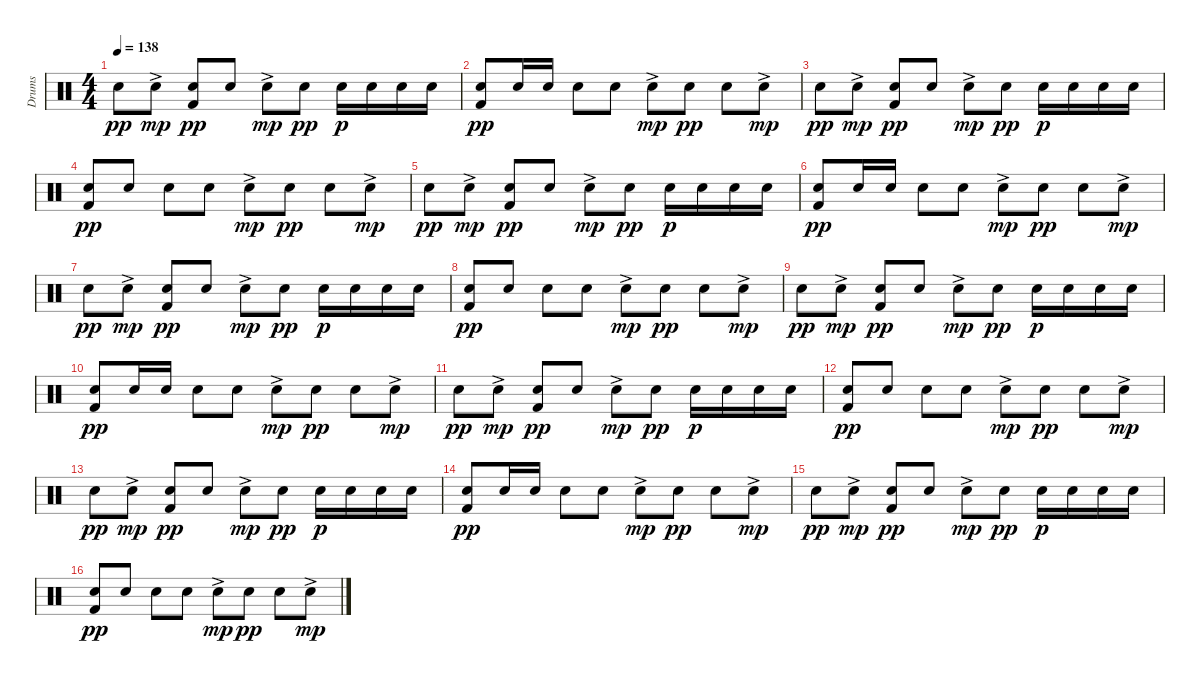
\track ("Drums" "Drums") {instrument percussion}
\staff {score}
\articulation defaults
\ts (4 4)
\tempo 138
\clef neutral
\ks c "Electric Snare (hit)".8{dy pp} "Electric Snare (hit)"{ac}.8{dy mp}
("Electric Snare (hit)" "Kick (hit) 2").8{dy pp} "Electric Snare (hit)".8 "Electric Snare (hit)"{ac}.8{dy mp} "Electric Snare (hit)".8{dy pp} "Electric Snare (hit)".16{dy p} "Electric Snare (hit)".16 "Electric Snare (hit)".16 "Electric Snare (hit)".16 |
("Electric Snare (hit)" "Kick (hit) 2").8{dy pp} "Electric Snare (hit)".16 "Electric Snare (hit)".16 "Electric Snare (hit)".8 "Electric Snare (hit)".8 "Electric Snare (hit)"{ac}.8{dy mp} "Electric Snare (hit)".8{dy pp} "Electric Snare (hit)".8 "Electric Snare (hit)"{ac}.8{dy mp} |
"Electric Snare (hit)".8{dy pp} "Electric Snare (hit)"{ac}.8{dy mp} ("Electric Snare (hit)" "Kick (hit) 2").8{dy pp} "Electric Snare (hit)".8 "Electric Snare (hit)"{ac}.8{dy mp} "Electric Snare (hit)".8{dy pp} "Electric Snare (hit)".16{dy p} "Electric Snare (hit)".16 "Electric Snare (hit)".16 "Electric Snare (hit)".16 |
("Electric Snare (hit)" "Kick (hit) 2").8{dy pp} "Electric Snare (hit)".8 "Electric Snare (hit)".8 "Electric Snare (hit)".8 "Electric Snare (hit)"{ac}.8{dy mp} "Electric Snare (hit)".8{dy pp} "Electric Snare (hit)".8 "Electric Snare (hit)"{ac}.8{dy mp} |
"Electric Snare (hit)".8{dy pp} "Electric Snare (hit)"{ac}.8{dy mp} ("Electric Snare (hit)" "Kick (hit) 2").8{dy pp} "Electric Snare (hit)".8 "Electric Snare (hit)"{ac}.8{dy mp} "Electric Snare (hit)".8{dy pp} "Electric Snare (hit)".16{dy p} "Electric Snare (hit)".16 "Electric Snare (hit)".16 "Electric Snare (hit)".16 |
("Electric Snare (hit)" "Kick (hit) 2").8{dy pp} "Electric Snare (hit)".16 "Electric Snare (hit)".16 "Electric Snare (hit)".8 "Electric Snare (hit)".8 "Electric Snare (hit)"{ac}.8{dy mp} "Electric Snare (hit)".8{dy pp} "Electric Snare (hit)".8 "Electric Snare (hit)"{ac}.8{dy mp} |
"Electric Snare (hit)".8{dy pp} "Electric Snare (hit)"{ac}.8{dy mp} ("Electric Snare (hit)" "Kick (hit) 2").8{dy pp} "Electric Snare (hit)".8 "Electric Snare (hit)"{ac}.8{dy mp} "Electric Snare (hit)".8{dy pp} "Electric Snare (hit)".16{dy p} "Electric Snare (hit)".16 "Electric Snare (hit)".16 "Electric Snare (hit)".16 |
("Electric Snare (hit)" "Kick (hit) 2").8{dy pp} "Electric Snare (hit)".8 "Electric Snare (hit)".8 "Electric Snare (hit)".8 "Electric Snare (hit)"{ac}.8{dy mp} "Electric Snare (hit)".8{dy pp} "Electric Snare (hit)".8 "Electric Snare (hit)"{ac}.8{dy mp} |
"Electric Snare (hit)".8{dy pp} "Electric Snare (hit)"{ac}.8{dy mp} ("Electric Snare (hit)" "Kick (hit) 2").8{dy pp} "Electric Snare (hit)".8 "Electric Snare (hit)"{ac}.8{dy mp} "Electric Snare (hit)".8{dy pp} "Electric Snare (hit)".16{dy p} "Electric Snare (hit)".16 "Electric Snare (hit)".16 "Electric Snare (hit)".16 |
("Electric Snare (hit)" "Kick (hit) 2").8{dy pp} "Electric Snare (hit)".16 "Electric Snare (hit)".16 "Electric Snare (hit)".8 "Electric Snare (hit)".8 "Electric Snare (hit)"{ac}.8{dy mp} "Electric Snare (hit)".8{dy pp} "Electric Snare (hit)".8 "Electric Snare (hit)"{ac}.8{dy mp} |
"Electric Snare (hit)".8{dy pp} "Electric Snare (hit)"{ac}.8{dy mp} ("Electric Snare (hit)" "Kick (hit) 2").8{dy pp} "Electric Snare (hit)".8 "Electric Snare (hit)"{ac}.8{dy mp} "Electric Snare (hit)".8{dy pp} "Electric Snare (hit)".16{dy p} "Electric Snare (hit)".16 "Electric Snare (hit)".16 "Electric Snare (hit)".16 |
("Electric Snare (hit)" "Kick (hit) 2").8{dy pp} "Electric Snare (hit)".8 "Electric Snare (hit)".8 "Electric Snare (hit)".8 "Electric Snare (hit)"{ac}.8{dy mp} "Electric Snare (hit)".8{dy pp} "Electric Snare (hit)".8 "Electric Snare (hit)"{ac}.8{dy mp} |
"Electric Snare (hit)".8{dy pp} "Electric Snare (hit)"{ac}.8{dy mp} ("Electric Snare (hit)" "Kick (hit) 2").8{dy pp} "Electric Snare (hit)".8 "Electric Snare (hit)"{ac}.8{dy mp} "Electric Snare (hit)".8{dy pp} "Electric Snare (hit)".16{dy p} "Electric Snare (hit)".16 "Electric Snare (hit)".16 "Electric Snare (hit)".16 |
("Electric Snare (hit)" "Kick (hit) 2").8{dy pp} "Electric Snare (hit)".16 "Electric Snare (hit)".16 "Electric Snare (hit)".8 "Electric Snare (hit)".8 "Electric Snare (hit)"{ac}.8{dy mp} "Electric Snare (hit)".8{dy pp} "Electric Snare (hit)".8 "Electric Snare (hit)"{ac}.8{dy mp} |
"Electric Snare (hit)".8{dy pp} "Electric Snare (hit)"{ac}.8{dy mp} ("Electric Snare (hit)" "Kick (hit) 2").8{dy pp} "Electric Snare (hit)".8 "Electric Snare (hit)"{ac}.8{dy mp} "Electric Snare (hit)".8{dy pp} "Electric Snare (hit)".16{dy p} "Electric Snare (hit)".16 "Electric Snare (hit)".16 "Electric Snare (hit)".16 |
("Electric Snare (hit)" "Kick (hit) 2").8{dy pp} "Electric Snare (hit)".8 "Electric Snare (hit)".8 "Electric Snare (hit)".8 "Electric Snare (hit)"{ac}.8{dy mp} "Electric Snare (hit)".8{dy pp} "Electric Snare (hit)".8 "Electric Snare (hit)"{ac}.8{dy mp}
